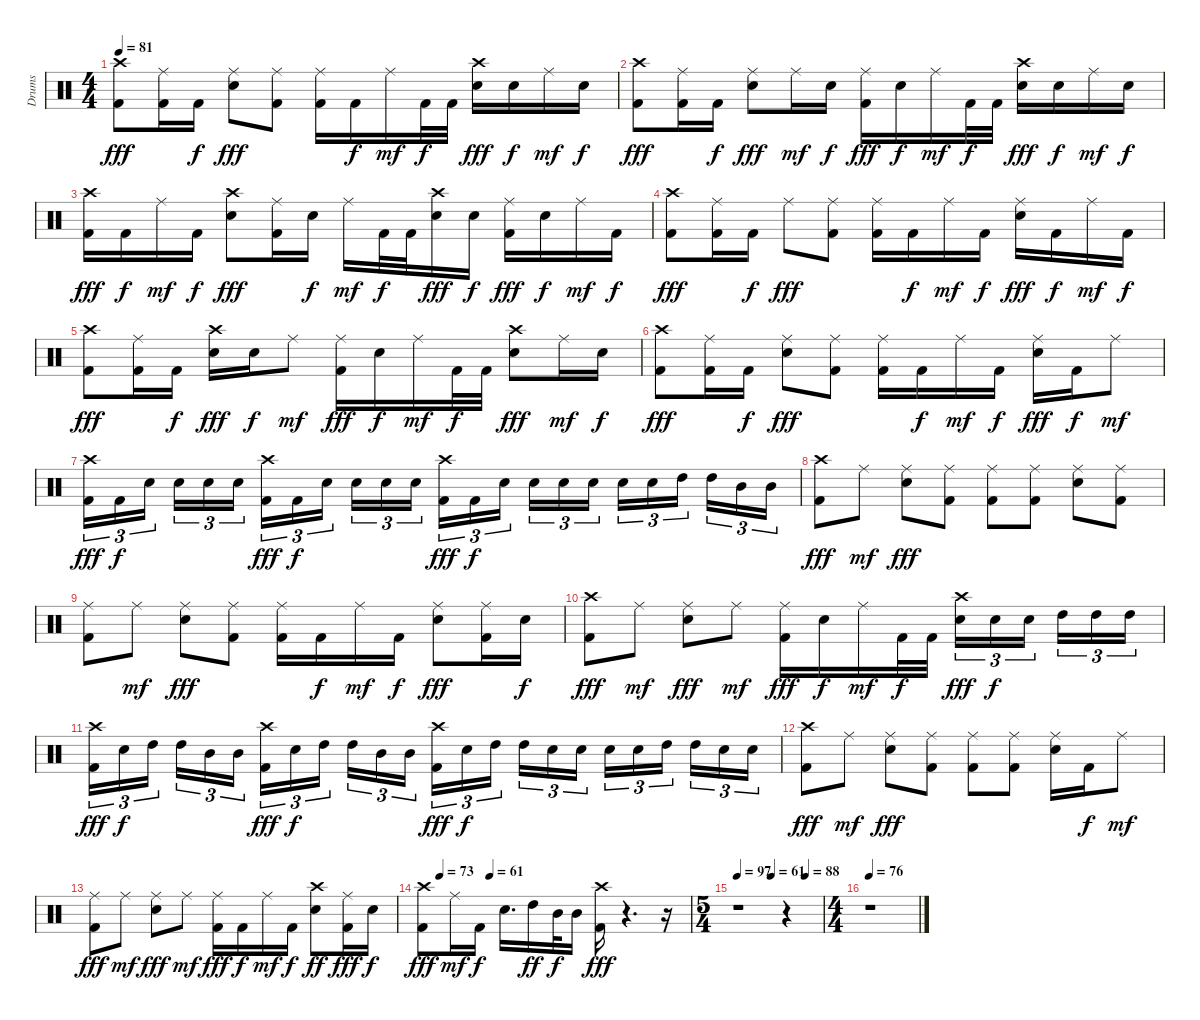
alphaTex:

\track ("Drums" "Drums") {instrument percussion}
\staff {score}
\articulation defaults
\ts (4 4)
\tempo 81
\clef neutral
\ks c
("Crash high (hit)" "Kick (hit) 2").8{dy fff} ("Ride (middle)" "Kick (hit) 2").16 "Kick (hit) 2".16{dy f} ("Ride (middle)" "Electric Snare (hit)").8{dy fff} ("Ride (middle)" "Kick (hit) 2").8 ("Ride (middle)" "Kick (hit) 2").16 "Kick (hit) 2".16{dy f} "Ride (middle)".16{dy mf} "Kick (hit) 2".32{dy f} "Kick (hit) 2".32 ("Crash high (hit)" "Electric Snare (hit)").16{dy fff} "Electric Snare (hit)".16{dy f} "Ride (middle)".16{dy mf} "Electric Snare (hit)".16{dy f} |
("Crash high (hit)" "Kick (hit) 2").8{dy fff} ("Ride (middle)" "Kick (hit) 2").16 "Kick (hit) 2".16{dy f} ("Ride (middle)" "Electric Snare (hit)").8{dy fff} "Ride (middle)".16{dy mf} "Electric Snare (hit)".16{dy f} ("Ride (middle)" "Kick (hit) 2").16{dy fff} "Electric Snare (hit)".16{dy f} "Ride (middle)".16{dy mf} "Kick (hit) 2".32{dy f} "Kick (hit) 2".32 ("Crash high (hit)" "Electric Snare (hit)").16{dy fff} "Electric Snare (hit)".16{dy f} "Ride (middle)".16{dy mf} "Electric Snare (hit)".16{dy f} |
("Crash high (hit)" "Kick (hit) 2").16{dy fff} "Kick (hit) 2".16{dy f} "Ride (middle)".16{dy mf} "Kick (hit) 2".16{dy f} ("Crash high (hit)" "Electric Snare (hit)").8{dy fff} ("Ride (middle)" "Kick (hit) 2").16 "Electric Snare (hit)".16{dy f} "Ride (middle)".16{dy mf} "Kick (hit) 2".32{dy f} "Kick (hit) 2".32 ("Crash high (hit)" "Electric Snare (hit)").16{dy fff} "Electric Snare (hit)".16{dy f} ("Ride (middle)" "Kick (hit) 2").16{dy fff} "Electric Snare (hit)".16{dy f} "Ride (middle)".16{dy mf} "Kick (hit) 2".16{dy f} |
("Crash high (hit)" "Kick (hit) 2").8{dy fff} ("Ride (middle)" "Kick (hit) 2").16 "Kick (hit) 2".16{dy f} "Ride (middle)".8{dy fff} ("Ride (middle)" "Kick (hit) 2").8 ("Ride (middle)" "Kick (hit) 2").16 "Kick (hit) 2".16{dy f} "Ride (middle)".16{dy mf} "Kick (hit) 2".16{dy f} ("Ride (middle)" "Electric Snare (hit)").16{dy fff} "Kick (hit) 2".16{dy f} "Ride (middle)".16{dy mf} "Kick (hit) 2".16{dy f} |
("Crash high (hit)" "Kick (hit) 2").8{dy fff} ("Ride (middle)" "Kick (hit) 2").16 "Kick (hit) 2".16{dy f} ("Crash high (hit)" "Electric Snare (hit)").16{dy fff} "Electric Snare (hit)".16{dy f} "Ride (middle)".8{dy mf} ("Ride (middle)" "Kick (hit) 2").16{dy fff} "Electric Snare (hit)".16{dy f} "Ride (middle)".16{dy mf} "Kick (hit) 2".32{dy f} "Kick (hit) 2".32 ("Crash high (hit)" "Electric Snare (hit)").8{dy fff} "Ride (middle)".16{dy mf} "Electric Snare (hit)".16{dy f} |
("Crash high (hit)" "Kick (hit) 2").8{dy fff} ("Ride (middle)" "Kick (hit) 2").16 "Kick (hit) 2".16{dy f} ("Ride (middle)" "Electric Snare (hit)").8{dy fff} ("Ride (middle)" "Kick (hit) 2").8 ("Ride (middle)" "Kick (hit) 2").16 "Kick (hit) 2".16{dy f} "Ride (middle)".16{dy mf} "Kick (hit) 2".16{dy f} ("Ride (middle)" "Electric Snare (hit)").16{dy fff} "Kick (hit) 2".16{dy f} "Ride (middle)".8{dy mf} |
("Crash high (hit)" "Kick (hit) 2").16{tu (3 2) dy fff} "Kick (hit) 2".16{tu (3 2) dy f} "Electric Snare (hit)".16{tu (3 2)} "Electric Snare (hit)".16{tu (3 2)} "Electric Snare (hit)".16{tu (3 2)} "Electric Snare (hit)".16{tu (3 2)} ("Crash high (hit)" "Kick (hit) 2").16{tu (3 2) dy fff} "Kick (hit) 2".16{tu (3 2) dy f} "Electric Snare (hit)".16{tu (3 2)} "Electric Snare (hit)".16{tu (3 2)} "Electric Snare (hit)".16{tu (3 2)} "Electric Snare (hit)".16{tu (3 2)} ("Crash high (hit)" "Kick (hit) 2").16{tu (3 2) dy fff} "Kick (hit) 2".16{tu (3 2) dy f} "Electric Snare (hit)".16{tu (3 2)} "Electric Snare (hit)".16{tu (3 2)} "Electric Snare (hit)".16{tu (3 2)} "Electric Snare (hit)".16{tu (3 2)} "Electric Snare (hit)".16{tu (3 2)} "Electric Snare (hit)".16{tu (3 2)} "High Tom (hit)".16{tu (3 2)} "High Tom (hit)".16{tu (3 2)} "Mid Tom (hit)".16{tu (3 2)} "Mid Tom (hit)".16{tu (3 2)} |
("Crash high (hit)" "Kick (hit) 2").8{dy fff} "Ride (middle)".8{dy mf} ("Ride (middle)" "Electric Snare (hit)").8{dy fff} ("Ride (middle)" "Kick (hit) 2").8 ("Ride (middle)" "Kick (hit) 2").8 ("Ride (middle)" "Kick (hit) 2").8 ("Ride (middle)" "Electric Snare (hit)").8 ("Ride (middle)" "Kick (hit) 2").8 |
("Ride (middle)" "Kick (hit) 2").8 "Ride (middle)".8{dy mf} ("Ride (middle)" "Electric Snare (hit)").8{dy fff} ("Ride (middle)" "Kick (hit) 2").8 ("Ride (middle)" "Kick (hit) 2").16 "Kick (hit) 2".16{dy f} "Ride (middle)".16{dy mf} "Kick (hit) 2".16{dy f} ("Ride (middle)" "Electric Snare (hit)").8{dy fff} ("Ride (middle)" "Kick (hit) 2").16 "Electric Snare (hit)".16{dy f} |
("Crash high (hit)" "Kick (hit) 2").8{dy fff} "Ride (middle)".8{dy mf} ("Ride (middle)" "Electric Snare (hit)").8{dy fff} "Ride (middle)".8{dy mf} ("Ride (middle)" "Kick (hit) 2").16{dy fff} "Electric Snare (hit)".16{dy f} "Ride (middle)".16{dy mf} "Kick (hit) 2".32{dy f} "Kick (hit) 2".32 ("Crash high (hit)" "Electric Snare (hit)").16{tu (3 2) dy fff} "Electric Snare (hit)".16{tu (3 2) dy f} "Electric Snare (hit)".16{tu (3 2)} "High Tom (hit)".16{tu (3 2)} "High Tom (hit)".16{tu (3 2)} "High Tom (hit)".16{tu (3 2)} |
("Crash high (hit)" "Kick (hit) 2").16{tu (3 2) dy fff} "Electric Snare (hit)".16{tu (3 2) dy f} "High Tom (hit)".16{tu (3 2)} "High Tom (hit)".16{tu (3 2)} "Mid Tom (hit)".16{tu (3 2)} "Mid Tom (hit)".16{tu (3 2)} ("Crash high (hit)" "Kick (hit) 2").16{tu (3 2) dy fff} "Electric Snare (hit)".16{tu (3 2) dy f} "High Tom (hit)".16{tu (3 2)} "High Tom (hit)".16{tu (3 2)} "Mid Tom (hit)".16{tu (3 2)} "Mid Tom (hit)".16{tu (3 2)} ("Crash high (hit)" "Kick (hit) 2").16{tu (3 2) dy fff} "Electric Snare (hit)".16{tu (3 2) dy f} "High Tom (hit)".16{tu (3 2)} "High Tom (hit)".16{tu (3 2)} "Electric Snare (hit)".16{tu (3 2)} "Electric Snare (hit)".16{tu (3 2)} "Electric Snare (hit)".16{tu (3 2)} "Electric Snare (hit)".16{tu (3 2)} "High Tom (hit)".16{tu (3 2)} "High Tom (hit)".16{tu (3 2)} "Electric Snare (hit)".16{tu (3 2)} "Electric Snare (hit)".16{tu (3 2)} |
("Crash high (hit)" "Kick (hit) 2").8{dy fff} "Ride (middle)".8{dy mf} ("Ride (middle)" "Electric Snare (hit)").8{dy fff} ("Ride (middle)" "Kick (hit) 2").8 ("Ride (middle)" "Kick (hit) 2").8 ("Ride (middle)" "Kick (hit) 2").8 ("Ride (middle)" "Electric Snare (hit)").16 "Kick (hit) 2".16{dy f} "Ride (middle)".8{dy mf} |
("Ride (middle)" "Kick (hit) 2").8{dy fff} "Ride (middle)".8{dy mf} ("Ride (middle)" "Electric Snare (hit)").8{dy fff} "Ride (middle)".8{dy mf} ("Ride (middle)" "Kick (hit) 2").16{dy fff} "Kick (hit) 2".16{dy f} "Ride (middle)".16{dy mf} "Kick (hit) 2".16{dy f} ("Crash high (hit)" "Electric Snare (hit)").8{dy ff} ("Ride (middle)" "Kick (hit) 2").16{dy fff} "Electric Snare (hit)".16{dy f} |
\tempo (73 0.0625)
\tempo (61 0.25)
("Crash high (hit)" "Kick (hit) 2").8{dy fff} "Ride (middle)".16{dy mf} "Kick (hit) 2".16{dy f} "Electric Snare (hit)".16{d} "High Tom (hit)".16{dy ff} "Mid Tom (hit)".32{dy f} "Mid Tom (hit)".16 ("Crash high (hit)" "Kick (hit) 2").16{dy fff} r.4{d} r.16 |
\ts (5 4)
\tempo 97
\tempo (61 0.4)
\tempo (88 0.8)
r.1 r.4 |
\ts (4 4)
\tempo 76
r.1
